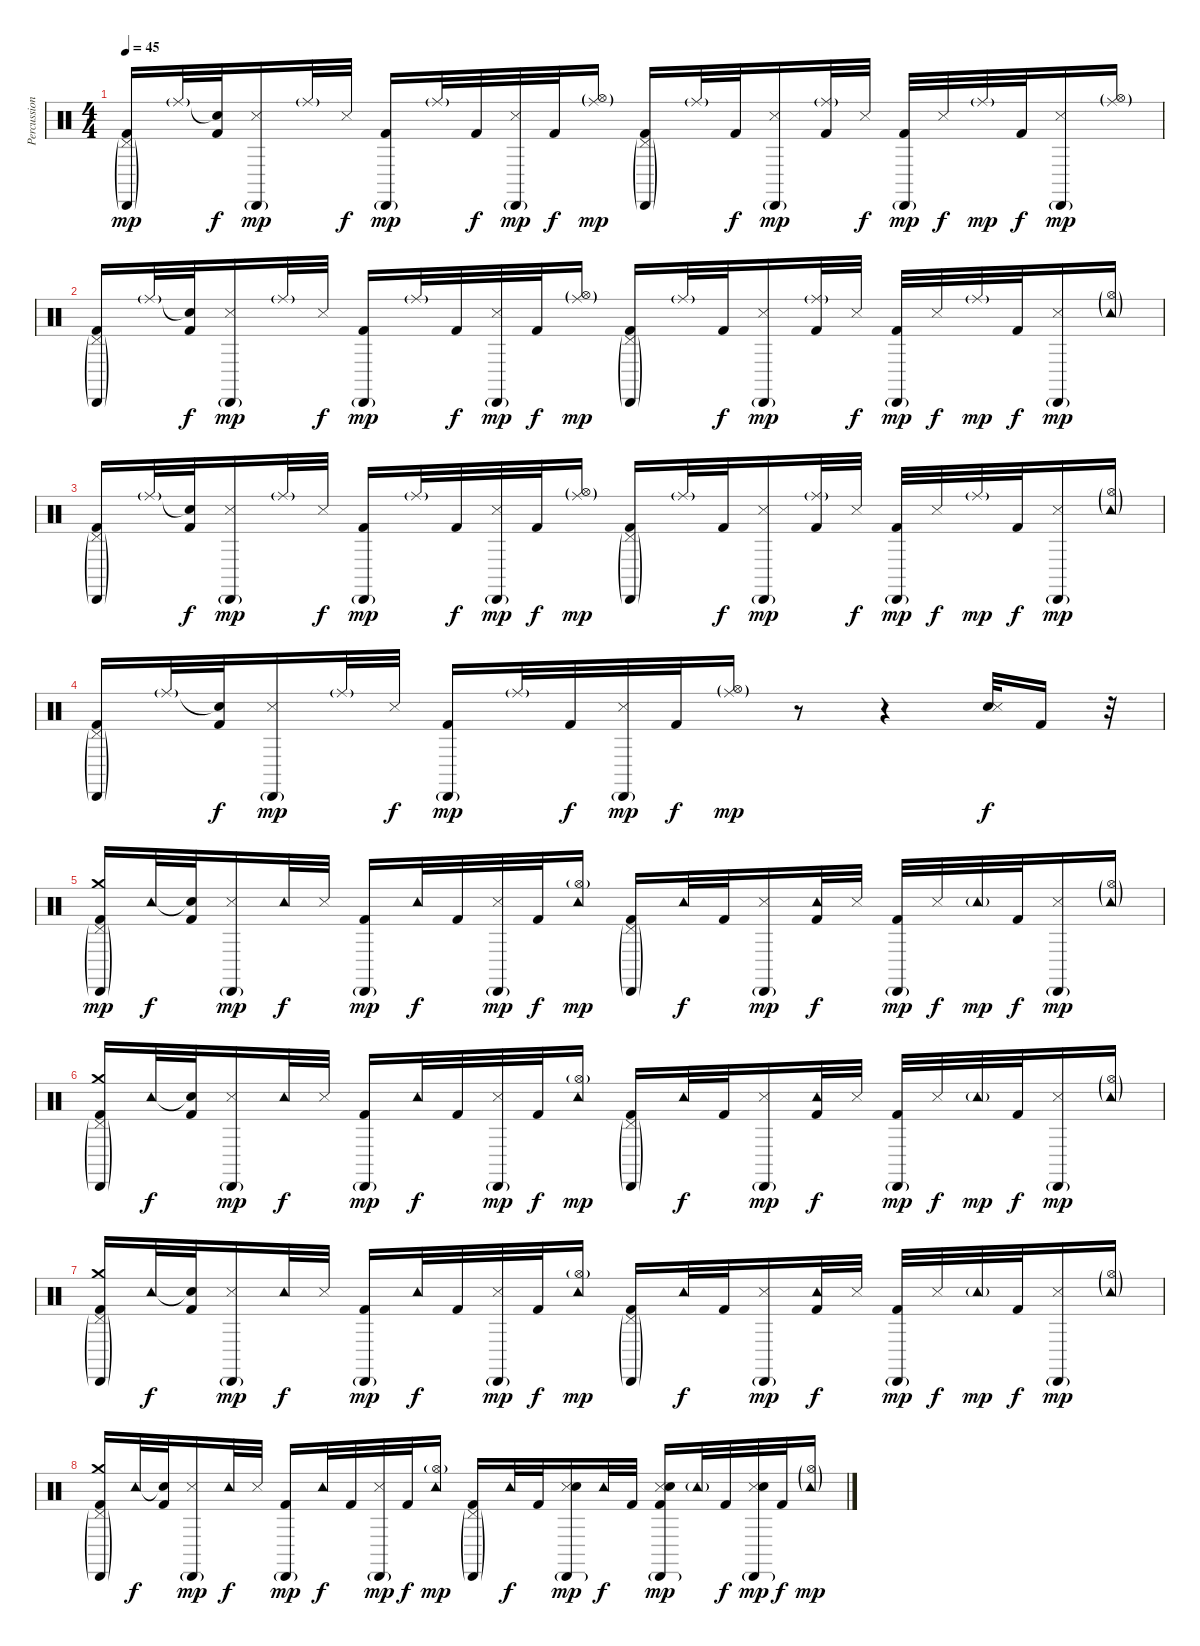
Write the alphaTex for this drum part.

\track ("Percussion" "Percussion") {instrument percussion}
\staff {score}
\articulation defaults
\ts (4 4)
\tempo 45
\clef neutral
\ks c
("Pedal Hi-Hat (hit)"{g} "Cabasa (hit)"{g} "Kick (hit) 2").16{dy mp} "Ride (middle)"{g}.32 ("Snare (hit)"{t} "Kick (hit) 2").32{dy f} ("Cabasa (hit)"{g} "Snare (side stick) 3").16{dy mp} "Ride (middle)"{g}.32 "Snare (side stick) 3".32{dy f} ("Cabasa (hit)"{g} "Kick (hit) 2").16{dy mp} "Ride (middle)"{g}.32 "Kick (hit) 2".32{dy f} ("Cabasa (hit)"{g} "Snare (side stick) 3").32{dy mp} "Kick (hit) 2".32{dy f} ("Hi-Hat (open)"{g} "Ride (middle)"{g}).16{dy mp} ("Pedal Hi-Hat (hit)"{g} "Cabasa (hit)"{g} "Kick (hit) 2").16 "Ride (middle)"{g}.32 "Kick (hit) 2".32{dy f} ("Cabasa (hit)"{g} "Snare (side stick) 3").16{dy mp} ("Ride (middle)"{g} "Kick (hit) 2").32 "Snare (side stick) 3".32{dy f} ("Cabasa (hit)"{g} "Kick (hit) 2").32{dy mp} "Snare (side stick) 3".32{dy f} "Ride (middle)"{g}.32{dy mp} "Kick (hit) 2".32{dy f} ("Cabasa (hit)"{g} "Snare (side stick) 3").16{dy mp} ("Hi-Hat (open)"{g} "Ride (middle)"{g}).16 |
("Pedal Hi-Hat (hit)"{g} "Cabasa (hit)"{g} "Kick (hit) 2").16 "Ride (middle)"{g}.32 ("Snare (hit)"{t} "Kick (hit) 2").32{dy f} ("Cabasa (hit)"{g} "Snare (side stick) 3").16{dy mp} "Ride (middle)"{g}.32 "Snare (side stick) 3".32{dy f} ("Cabasa (hit)"{g} "Kick (hit) 2").16{dy mp} "Ride (middle)"{g}.32 "Kick (hit) 2".32{dy f} ("Cabasa (hit)"{g} "Snare (side stick) 3").32{dy mp} "Kick (hit) 2".32{dy f} ("Hi-Hat (open)"{g} "Ride (middle)"{g}).16{dy mp} ("Pedal Hi-Hat (hit)"{g} "Cabasa (hit)"{g} "Kick (hit) 2").16 "Ride (middle)"{g}.32 "Kick (hit) 2".32{dy f} ("Cabasa (hit)"{g} "Snare (side stick) 3").16{dy mp} ("Ride (middle)"{g} "Kick (hit) 2").32 "Snare (side stick) 3".32{dy f} ("Cabasa (hit)"{g} "Kick (hit) 2").32{dy mp} "Snare (side stick) 3".32{dy f} "Ride (middle)"{g}.32{dy mp} "Kick (hit) 2".32{dy f} ("Cabasa (hit)"{g} "Snare (side stick) 3").16{dy mp} ("Hi-Hat (open)"{g} "Tambourine (hit)"{g}).16 |
("Pedal Hi-Hat (hit)"{g} "Cabasa (hit)"{g} "Kick (hit) 2").16 "Ride (middle)"{g}.32 ("Snare (hit)"{t} "Kick (hit) 2").32{dy f} ("Cabasa (hit)"{g} "Snare (side stick) 3").16{dy mp} "Ride (middle)"{g}.32 "Snare (side stick) 3".32{dy f} ("Cabasa (hit)"{g} "Kick (hit) 2").16{dy mp} "Ride (middle)"{g}.32 "Kick (hit) 2".32{dy f} ("Cabasa (hit)"{g} "Snare (side stick) 3").32{dy mp} "Kick (hit) 2".32{dy f} ("Hi-Hat (open)"{g} "Ride (middle)"{g}).16{dy mp} ("Pedal Hi-Hat (hit)"{g} "Cabasa (hit)"{g} "Kick (hit) 2").16 "Ride (middle)"{g}.32 "Kick (hit) 2".32{dy f} ("Cabasa (hit)"{g} "Snare (side stick) 3").16{dy mp} ("Ride (middle)"{g} "Kick (hit) 2").32 "Snare (side stick) 3".32{dy f} ("Cabasa (hit)"{g} "Kick (hit) 2").32{dy mp} "Snare (side stick) 3".32{dy f} "Ride (middle)"{g}.32{dy mp} "Kick (hit) 2".32{dy f} ("Cabasa (hit)"{g} "Snare (side stick) 3").16{dy mp} ("Hi-Hat (open)"{g} "Tambourine (hit)"{g}).16 |
("Pedal Hi-Hat (hit)"{g} "Cabasa (hit)"{g} "Kick (hit) 2").16 "Ride (middle)"{g}.32 ("Snare (hit)"{t} "Kick (hit) 2").32{dy f} ("Cabasa (hit)"{g} "Snare (side stick) 3").16{dy mp} "Ride (middle)"{g}.32 "Snare (side stick) 3".32{dy f} ("Cabasa (hit)"{g} "Kick (hit) 2").16{dy mp} "Ride (middle)"{g}.32 "Kick (hit) 2".32{dy f} ("Cabasa (hit)"{g} "Snare (side stick) 3").32{dy mp} "Kick (hit) 2".32{dy f} ("Hi-Hat (open)"{g} "Ride (middle)"{g}).16{dy mp} r.8 r.4 ("Electric Snare (hit)" "Snare (side stick) 3").32{dy f} "Kick (hit) 2".16 r.32 |
("Crash medium (hit)" "Pedal Hi-Hat (hit)"{g} "Cabasa (hit)"{g} "Kick (hit) 2").16{dy mp} "Tambourine (hit)".32{dy f} ("Snare (hit)"{t} "Kick (hit) 2").32 ("Cabasa (hit)"{g} "Snare (side stick) 3").16{dy mp} "Tambourine (hit)".32{dy f} "Snare (side stick) 3".32 ("Cabasa (hit)"{g} "Kick (hit) 2").16{dy mp} "Tambourine (hit)".32{dy f} "Kick (hit) 2".32 ("Cabasa (hit)"{g} "Snare (side stick) 3").32{dy mp} "Kick (hit) 2".32{dy f} ("Hi-Hat (open)"{g} "Tambourine (hit)").16{dy mp} ("Pedal Hi-Hat (hit)"{g} "Cabasa (hit)"{g} "Kick (hit) 2").16 "Tambourine (hit)".32{dy f} "Kick (hit) 2".32 ("Cabasa (hit)"{g} "Snare (side stick) 3").16{dy mp} ("Tambourine (hit)" "Kick (hit) 2").32{dy f} "Snare (side stick) 3".32 ("Cabasa (hit)"{g} "Kick (hit) 2").32{dy mp} "Snare (side stick) 3".32{dy f} "Tambourine (hit)"{g}.32{dy mp} "Kick (hit) 2".32{dy f} ("Cabasa (hit)"{g} "Snare (side stick) 3").16{dy mp} ("Hi-Hat (open)"{g} "Tambourine (hit)"{g}).16 |
("Crash medium (hit)" "Pedal Hi-Hat (hit)"{g} "Cabasa (hit)"{g} "Kick (hit) 2").16 "Tambourine (hit)".32{dy f} ("Snare (hit)"{t} "Kick (hit) 2").32 ("Cabasa (hit)"{g} "Snare (side stick) 3").16{dy mp} "Tambourine (hit)".32{dy f} "Snare (side stick) 3".32 ("Cabasa (hit)"{g} "Kick (hit) 2").16{dy mp} "Tambourine (hit)".32{dy f} "Kick (hit) 2".32 ("Cabasa (hit)"{g} "Snare (side stick) 3").32{dy mp} "Kick (hit) 2".32{dy f} ("Hi-Hat (open)"{g} "Tambourine (hit)").16{dy mp} ("Pedal Hi-Hat (hit)"{g} "Cabasa (hit)"{g} "Kick (hit) 2").16 "Tambourine (hit)".32{dy f} "Kick (hit) 2".32 ("Cabasa (hit)"{g} "Snare (side stick) 3").16{dy mp} ("Tambourine (hit)" "Kick (hit) 2").32{dy f} "Snare (side stick) 3".32 ("Cabasa (hit)"{g} "Kick (hit) 2").32{dy mp} "Snare (side stick) 3".32{dy f} "Tambourine (hit)"{g}.32{dy mp} "Kick (hit) 2".32{dy f} ("Cabasa (hit)"{g} "Snare (side stick) 3").16{dy mp} ("Hi-Hat (open)"{g} "Tambourine (hit)"{g}).16 |
("Crash medium (hit)" "Pedal Hi-Hat (hit)"{g} "Cabasa (hit)"{g} "Kick (hit) 2").16 "Tambourine (hit)".32{dy f} ("Snare (hit)"{t} "Kick (hit) 2").32 ("Cabasa (hit)"{g} "Snare (side stick) 3").16{dy mp} "Tambourine (hit)".32{dy f} "Snare (side stick) 3".32 ("Cabasa (hit)"{g} "Kick (hit) 2").16{dy mp} "Tambourine (hit)".32{dy f} "Kick (hit) 2".32 ("Cabasa (hit)"{g} "Snare (side stick) 3").32{dy mp} "Kick (hit) 2".32{dy f} ("Hi-Hat (open)"{g} "Tambourine (hit)").16{dy mp} ("Pedal Hi-Hat (hit)"{g} "Cabasa (hit)"{g} "Kick (hit) 2").16 "Tambourine (hit)".32{dy f} "Kick (hit) 2".32 ("Cabasa (hit)"{g} "Snare (side stick) 3").16{dy mp} ("Tambourine (hit)" "Kick (hit) 2").32{dy f} "Snare (side stick) 3".32 ("Cabasa (hit)"{g} "Kick (hit) 2").32{dy mp} "Snare (side stick) 3".32{dy f} "Tambourine (hit)"{g}.32{dy mp} "Kick (hit) 2".32{dy f} ("Cabasa (hit)"{g} "Snare (side stick) 3").16{dy mp} ("Hi-Hat (open)"{g} "Tambourine (hit)"{g}).16 |
("Crash medium (hit)" "Pedal Hi-Hat (hit)"{g} "Cabasa (hit)"{g} "Kick (hit) 2").16 "Tambourine (hit)".32{dy f} ("Snare (hit)"{t} "Kick (hit) 2").32 ("Cabasa (hit)"{g} "Snare (side stick) 3").16{dy mp} "Tambourine (hit)".32{dy f} "Snare (side stick) 3".32 ("Cabasa (hit)"{g} "Kick (hit) 2").16{dy mp} "Tambourine (hit)".32{dy f} "Kick (hit) 2".32 ("Cabasa (hit)"{g} "Snare (side stick) 3").32{dy mp} "Kick (hit) 2".32{dy f} ("Hi-Hat (open)"{g} "Tambourine (hit)").16{dy mp} ("Pedal Hi-Hat (hit)"{g} "Cabasa (hit)"{g} "Kick (hit) 2").16 "Tambourine (hit)".32{dy f} "Kick (hit) 2".32 ("Cabasa (hit)"{g} "Snare (side stick) 3" "Electric Snare (hit)").16{dy mp} "Tambourine (hit)".32{dy f} "Kick (hit) 2".32 ("Cabasa (hit)"{g} "Snare (side stick) 3" "Electric Snare (hit)" "Kick (hit) 2").16{dy mp} "Tambourine (hit)"{g}.32 "Kick (hit) 2".32{dy f} ("Cabasa (hit)"{g} "Snare (side stick) 3" "Electric Snare (hit)").32{dy mp} "Kick (hit) 2".32{dy f} ("Hi-Hat (open)"{g} "Tambourine (hit)"{g}).16{dy mp}
